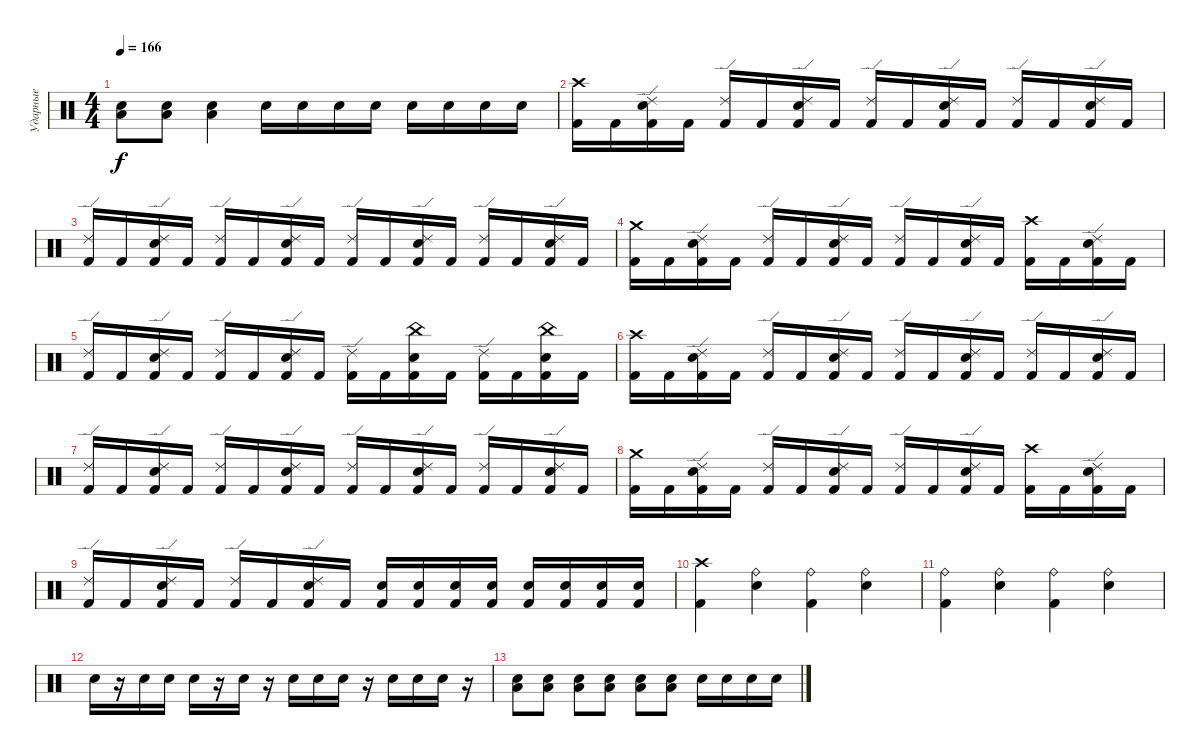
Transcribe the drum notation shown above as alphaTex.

\track ("Ударные" "Ударные") {instrument percussion}
\staff {score}
\articulation defaults
\ts (4 4)
\tempo 166
\clef neutral
\ks c
("Snare (hit) 2" "Low Floor Tom (hit)").8{dy f} ("Snare (hit) 2" "Low Floor Tom (hit)").8 ("Snare (hit) 2" "Low Floor Tom (hit)").4 "Snare (hit) 2".16 "Snare (hit) 2".16 "Snare (hit) 2".16 "Snare (hit) 2".16 "Snare (hit) 2".16 "Snare (hit) 2".16 "Snare (hit) 2".16 "Snare (hit) 2".16 |
("Kick (hit) 2" "Crash high (hit)").16 "Kick (hit) 2".16 ("Kick (hit) 2" "Snare (hit) 2" "Ride (edge) 2").16 "Kick (hit) 2".16 ("Kick (hit) 2" "Ride (edge) 2").16 "Kick (hit) 2".16 ("Kick (hit) 2" "Snare (hit) 2" "Ride (edge) 2").16 "Kick (hit) 2".16 ("Kick (hit) 2" "Ride (edge) 2").16 "Kick (hit) 2".16 ("Kick (hit) 2" "Snare (hit) 2" "Ride (edge) 2").16 "Kick (hit) 2".16 ("Kick (hit) 2" "Ride (edge) 2").16 "Kick (hit) 2".16 ("Kick (hit) 2" "Snare (hit) 2" "Ride (edge) 2").16 "Kick (hit) 2".16 |
("Kick (hit) 2" "Ride (edge) 2").16 "Kick (hit) 2".16 ("Kick (hit) 2" "Snare (hit) 2" "Ride (edge) 2").16 "Kick (hit) 2".16 ("Kick (hit) 2" "Ride (edge) 2").16 "Kick (hit) 2".16 ("Kick (hit) 2" "Snare (hit) 2" "Ride (edge) 2").16 "Kick (hit) 2".16 ("Kick (hit) 2" "Ride (edge) 2").16 "Kick (hit) 2".16 ("Kick (hit) 2" "Snare (hit) 2" "Ride (edge) 2").16 "Kick (hit) 2".16 ("Kick (hit) 2" "Ride (edge) 2").16 "Kick (hit) 2".16 ("Kick (hit) 2" "Snare (hit) 2" "Ride (edge) 2").16 "Kick (hit) 2".16 |
("Kick (hit) 2" "Crash medium (hit)").16 "Kick (hit) 2".16 ("Kick (hit) 2" "Snare (hit) 2" "Ride (edge) 2").16 "Kick (hit) 2".16 ("Kick (hit) 2" "Ride (edge) 2").16 "Kick (hit) 2".16 ("Kick (hit) 2" "Snare (hit) 2" "Ride (edge) 2").16 "Kick (hit) 2".16 ("Kick (hit) 2" "Ride (edge) 2").16 "Kick (hit) 2".16 ("Kick (hit) 2" "Snare (hit) 2" "Ride (edge) 2").16 "Kick (hit) 2".16 ("Kick (hit) 2" "Crash high (hit)").16 "Kick (hit) 2".16 ("Kick (hit) 2" "Snare (hit) 2" "Ride (edge) 2").16 "Kick (hit) 2".16 |
("Kick (hit) 2" "Ride (edge) 2").16 "Kick (hit) 2".16 ("Kick (hit) 2" "Snare (hit) 2" "Ride (edge) 2").16 "Kick (hit) 2".16 ("Kick (hit) 2" "Ride (edge) 2").16 "Kick (hit) 2".16 ("Kick (hit) 2" "Snare (hit) 2" "Ride (edge) 2").16 "Kick (hit) 2".16 ("Kick (hit) 2" "Ride (edge) 2").16 "Kick (hit) 2".16 ("Kick (hit) 2" "Snare (hit) 2" "China (hit)").16 "Kick (hit) 2".16 ("Kick (hit) 2" "Ride (edge) 2").16 "Kick (hit) 2".16 ("Kick (hit) 2" "Snare (hit) 2" "China (hit)").16 "Kick (hit) 2".16 |
("Kick (hit) 2" "Crash high (hit)").16 "Kick (hit) 2".16 ("Kick (hit) 2" "Snare (hit) 2" "Ride (edge) 2").16 "Kick (hit) 2".16 ("Kick (hit) 2" "Ride (edge) 2").16 "Kick (hit) 2".16 ("Kick (hit) 2" "Snare (hit) 2" "Ride (edge) 2").16 "Kick (hit) 2".16 ("Kick (hit) 2" "Ride (edge) 2").16 "Kick (hit) 2".16 ("Kick (hit) 2" "Snare (hit) 2" "Ride (edge) 2").16 "Kick (hit) 2".16 ("Kick (hit) 2" "Ride (edge) 2").16 "Kick (hit) 2".16 ("Kick (hit) 2" "Snare (hit) 2" "Ride (edge) 2").16 "Kick (hit) 2".16 |
("Kick (hit) 2" "Ride (edge) 2").16 "Kick (hit) 2".16 ("Kick (hit) 2" "Snare (hit) 2" "Ride (edge) 2").16 "Kick (hit) 2".16 ("Kick (hit) 2" "Ride (edge) 2").16 "Kick (hit) 2".16 ("Kick (hit) 2" "Snare (hit) 2" "Ride (edge) 2").16 "Kick (hit) 2".16 ("Kick (hit) 2" "Ride (edge) 2").16 "Kick (hit) 2".16 ("Kick (hit) 2" "Snare (hit) 2" "Ride (edge) 2").16 "Kick (hit) 2".16 ("Kick (hit) 2" "Ride (edge) 2").16 "Kick (hit) 2".16 ("Kick (hit) 2" "Snare (hit) 2" "Ride (edge) 2").16 "Kick (hit) 2".16 |
("Kick (hit) 2" "Crash medium (hit)").16 "Kick (hit) 2".16 ("Kick (hit) 2" "Snare (hit) 2" "Ride (edge) 2").16 "Kick (hit) 2".16 ("Kick (hit) 2" "Ride (edge) 2").16 "Kick (hit) 2".16 ("Kick (hit) 2" "Snare (hit) 2" "Ride (edge) 2").16 "Kick (hit) 2".16 ("Kick (hit) 2" "Ride (edge) 2").16 "Kick (hit) 2".16 ("Kick (hit) 2" "Snare (hit) 2" "Ride (edge) 2").16 "Kick (hit) 2".16 ("Kick (hit) 2" "Crash high (hit)").16 "Kick (hit) 2".16 ("Kick (hit) 2" "Snare (hit) 2" "Ride (edge) 2").16 "Kick (hit) 2".16 |
("Kick (hit) 2" "Ride (edge) 2").16 "Kick (hit) 2".16 ("Kick (hit) 2" "Snare (hit) 2" "Ride (edge) 2").16 "Kick (hit) 2".16 ("Kick (hit) 2" "Ride (edge) 2").16 "Kick (hit) 2".16 ("Kick (hit) 2" "Snare (hit) 2" "Ride (edge) 2").16 "Kick (hit) 2".16 ("Kick (hit) 2" "Snare (hit) 2").16 ("Kick (hit) 2" "Snare (hit) 2").16 ("Kick (hit) 2" "Snare (hit) 2").16 ("Kick (hit) 2" "Snare (hit) 2").16 ("Kick (hit) 2" "Snare (hit) 2").16 ("Kick (hit) 2" "Snare (hit) 2").16 ("Kick (hit) 2" "Snare (hit) 2").16 ("Kick (hit) 2" "Snare (hit) 2").16 |
("Kick (hit) 2" "Crash high (hit)").4 ("Snare (hit) 2" "Ride (bell)").4 ("Kick (hit) 2" "Ride (bell)").4 ("Snare (hit) 2" "Ride (bell)").4 |
("Kick (hit) 2" "Ride (bell)").4 ("Snare (hit) 2" "Ride (bell)").4 ("Kick (hit) 2" "Ride (bell)").4 ("Snare (hit) 2" "Ride (bell)").4 |
"Snare (hit) 2".16 r.16 "Snare (hit) 2".16 "Snare (hit) 2".16 "Snare (hit) 2".16 r.16 "Snare (hit) 2".16 r.16 "Snare (hit) 2".16 "Snare (hit) 2".16 "Snare (hit) 2".16 r.16 "Snare (hit) 2".16 "Snare (hit) 2".16 "Snare (hit) 2".16 r.16 |
("Low Floor Tom (hit)" "Snare (hit) 2").8 ("Low Floor Tom (hit)" "Snare (hit) 2").8 ("Low Floor Tom (hit)" "Snare (hit) 2").8 ("Low Floor Tom (hit)" "Snare (hit) 2").8 ("Low Floor Tom (hit)" "Snare (hit) 2").8 ("Low Floor Tom (hit)" "Snare (hit) 2").8 "Snare (hit) 2".16 "Snare (hit) 2".16 "Snare (hit) 2".16 "Snare (hit) 2".16
